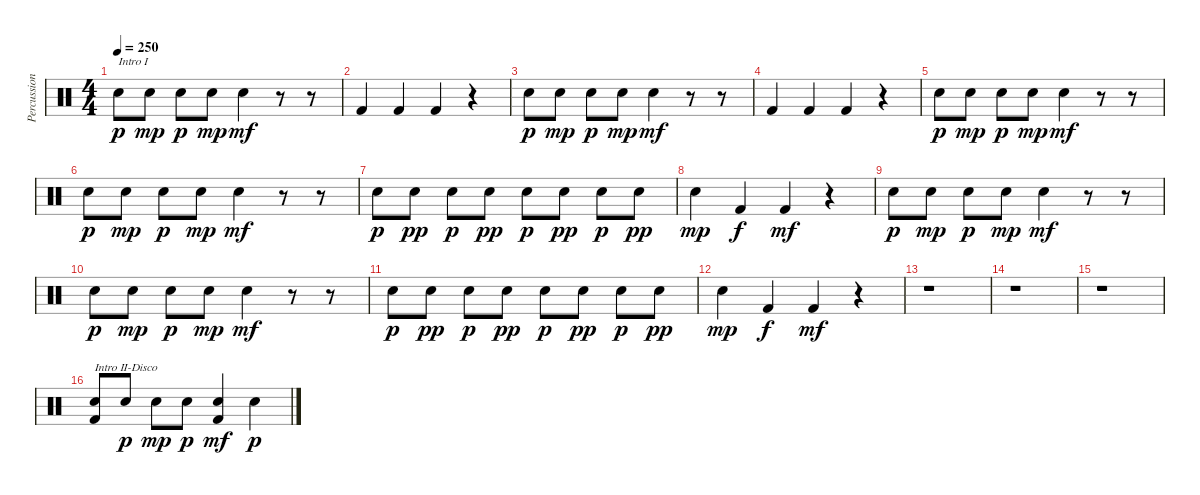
\track ("Percussion" "Percussion") {instrument percussion}
\staff {score}
\articulation defaults
\ts (4 4)
\tempo 250
\clef neutral
\ks c "Snare (hit) 2".8{txt "Intro I" dy p} "Snare (hit) 2".8{dy mp} "Snare (hit) 2".8{dy p} "Snare (hit) 2".8{dy mp} "Snare (hit) 2".4{dy mf}
r.8 r.8 |
"Kick (hit) 2".4 "Kick (hit) 2".4 "Kick (hit) 2".4 r.4 |
"Snare (hit) 2".8{dy p} "Snare (hit) 2".8{dy mp} "Snare (hit) 2".8{dy p} "Snare (hit) 2".8{dy mp} "Snare (hit) 2".4{dy mf} r.8 r.8 |
"Kick (hit) 2".4 "Kick (hit) 2".4 "Kick (hit) 2".4 r.4 |
"Snare (hit) 2".8{dy p} "Snare (hit) 2".8{dy mp} "Snare (hit) 2".8{dy p} "Snare (hit) 2".8{dy mp} "Snare (hit) 2".4{dy mf} r.8 r.8 |
"Snare (hit) 2".8{dy p} "Snare (hit) 2".8{dy mp} "Snare (hit) 2".8{dy p} "Snare (hit) 2".8{dy mp} "Snare (hit) 2".4{dy mf} r.8 r.8 |
"Snare (hit) 2".8{dy p} "Snare (hit) 2".8{dy pp} "Snare (hit) 2".8{dy p} "Snare (hit) 2".8{dy pp} "Snare (hit) 2".8{dy p} "Snare (hit) 2".8{dy pp} "Snare (hit) 2".8{dy p} "Snare (hit) 2".8{dy pp} |
"Snare (hit) 2".4{dy mp} "Kick (hit) 2".4{dy f} "Kick (hit) 2".4{dy mf} r.4 |
"Snare (hit) 2".8{dy p} "Snare (hit) 2".8{dy mp} "Snare (hit) 2".8{dy p} "Snare (hit) 2".8{dy mp} "Snare (hit) 2".4{dy mf} r.8 r.8 |
"Snare (hit) 2".8{dy p} "Snare (hit) 2".8{dy mp} "Snare (hit) 2".8{dy p} "Snare (hit) 2".8{dy mp} "Snare (hit) 2".4{dy mf} r.8 r.8 |
"Snare (hit) 2".8{dy p} "Snare (hit) 2".8{dy pp} "Snare (hit) 2".8{dy p} "Snare (hit) 2".8{dy pp} "Snare (hit) 2".8{dy p} "Snare (hit) 2".8{dy pp} "Snare (hit) 2".8{dy p} "Snare (hit) 2".8{dy pp} |
"Snare (hit) 2".4{dy mp} "Kick (hit) 2".4{dy f} "Kick (hit) 2".4{dy mf} r.4 |
r.1 |
r.1 |
r.1 |
("Snare (hit) 2" "Kick (hit) 2").8{txt "Intro II-Disco"} "Snare (hit) 2".8{dy p} "Snare (hit) 2".8{dy mp} "Snare (hit) 2".8{dy p} ("Snare (hit) 2" "Kick (hit) 2").4{dy mf} "Snare (hit) 2".4{dy p}
